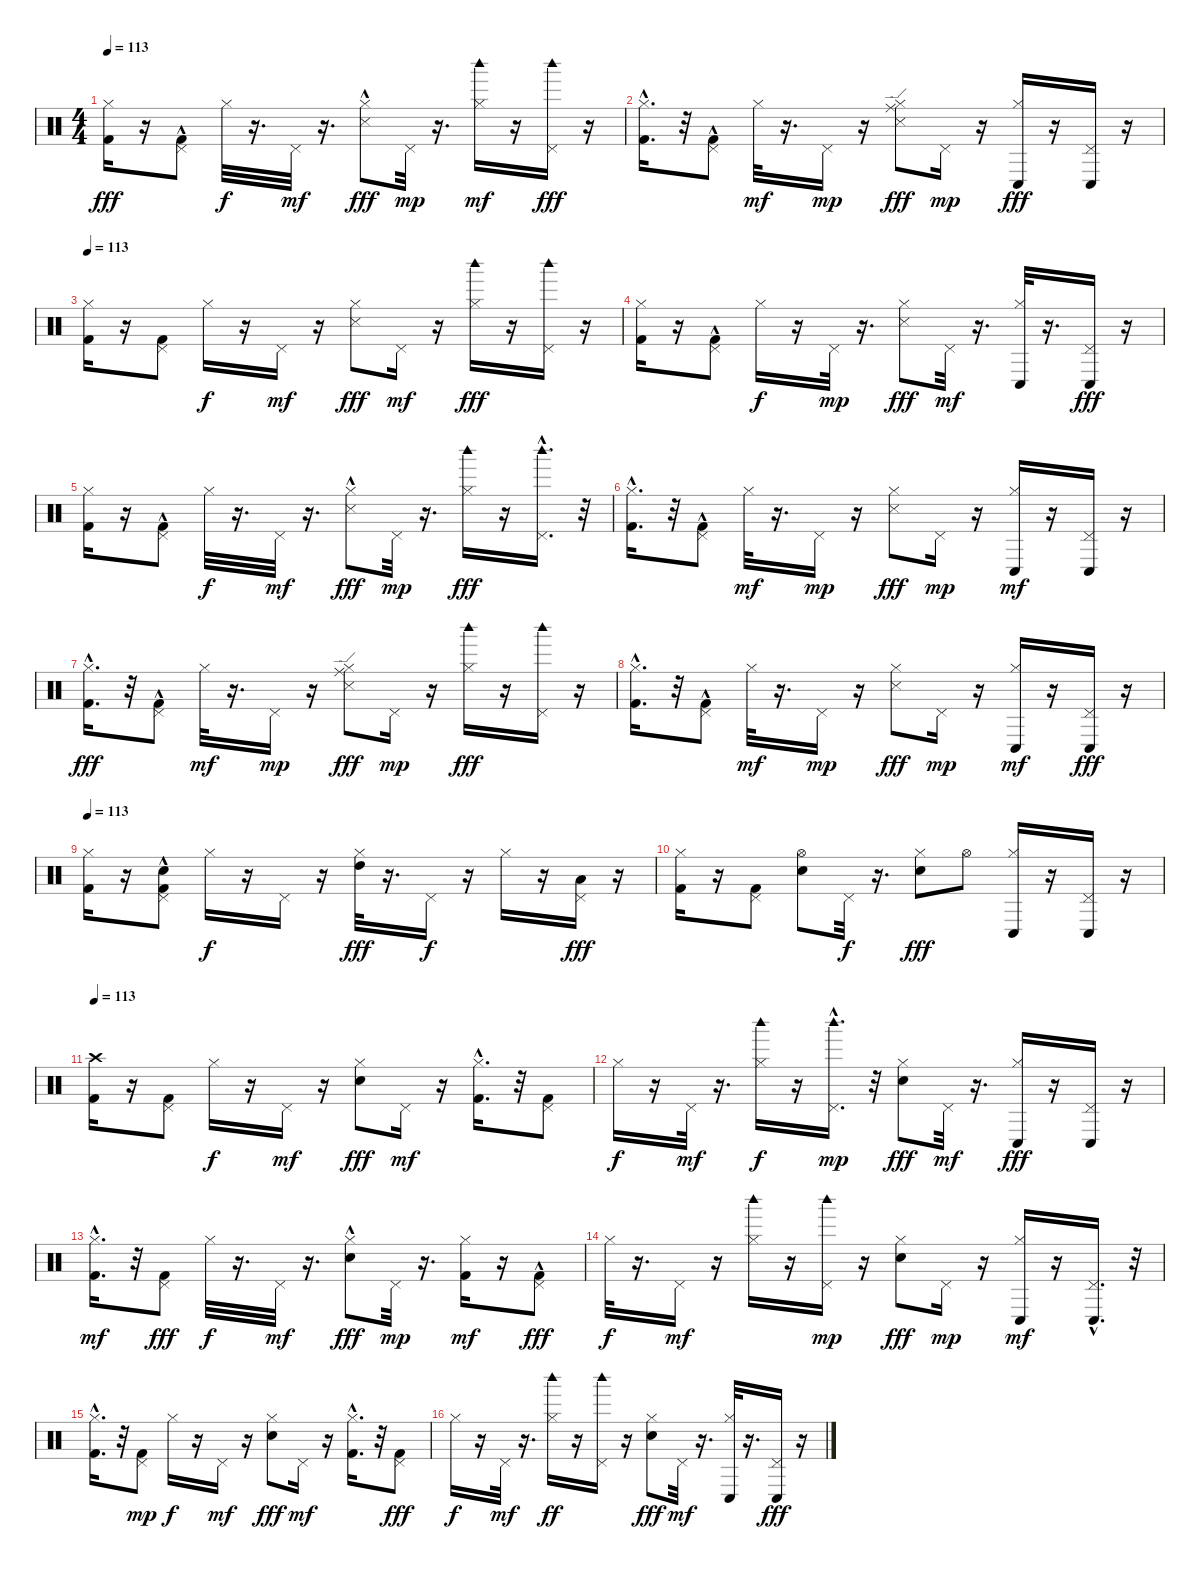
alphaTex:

\track "" {instrument percussion}
\staff {score}
\articulation defaults
\ts (4 4)
\tempo 113
\clef neutral
\ks c
("Hi-Hat (closed)" "Kick (hit) 2").16{dy fff} r.16 ("Pedal Hi-Hat (hit)" "Kick (hit) 2"{hac}).8 "Hi-Hat (closed)".32{dy f} r.16{d} "Pedal Hi-Hat (hit)".32{dy mf} r.16{d} ("Hi-Hat (closed)" "Snare (side stick) 3"{hac}).8{dy fff} "Pedal Hi-Hat (hit)".32{dy mp} r.16{d} ("Woodblock high (hit)" "Hi-Hat (closed)").16{dy mf} r.16 ("Pedal Hi-Hat (hit)" "Woodblock high (hit)").16{dy fff} r.16 |
("Hi-Hat (closed)" "Kick (hit) 2"{hac}).16{d} r.32 ("Pedal Hi-Hat (hit)" "Kick (hit) 2"{hac}).8 "Hi-Hat (closed)".32{dy mf} r.16{d} "Pedal Hi-Hat (hit)".16{dy mp} r.16 ("Ride (edge)" "Hi-Hat (closed)" "Snare (side stick) 3").8{dy fff} "Pedal Hi-Hat (hit)".16{dy mp} r.16 ("Hi-Hat (closed)" "Conga low (hit)").16{dy fff} r.16 ("Pedal Hi-Hat (hit)" "Conga low (hit)").16 r.16 |
\tempo 113
("Hi-Hat (closed)" "Kick (hit) 2").16 r.16 ("Pedal Hi-Hat (hit)" "Kick (hit) 2").8 "Hi-Hat (closed)".16{dy f} r.16 "Pedal Hi-Hat (hit)".16{dy mf} r.16 ("Hi-Hat (closed)" "Snare (side stick) 3").8{dy fff} "Pedal Hi-Hat (hit)".16{dy mf} r.16 ("Hi-Hat (closed)" "Woodblock high (hit)").16{dy fff} r.16 ("Pedal Hi-Hat (hit)" "Woodblock high (hit)").16 r.16 |
("Hi-Hat (closed)" "Kick (hit) 2").16 r.16 ("Pedal Hi-Hat (hit)" "Kick (hit) 2"{hac}).8 "Hi-Hat (closed)".16{dy f} r.16 "Pedal Hi-Hat (hit)".32{dy mp} r.16{d} ("Hi-Hat (closed)" "Snare (side stick) 3").8{dy fff} "Pedal Hi-Hat (hit)".32{dy mf} r.16{d} ("Conga low (hit)" "Hi-Hat (closed)").32 r.16{d} ("Pedal Hi-Hat (hit)" "Conga low (hit)").16{dy fff} r.16 |
("Hi-Hat (closed)" "Kick (hit) 2").16 r.16 ("Pedal Hi-Hat (hit)" "Kick (hit) 2"{hac}).8 "Hi-Hat (closed)".32{dy f} r.16{d} "Pedal Hi-Hat (hit)".32{dy mf} r.16{d} ("Hi-Hat (closed)" "Snare (side stick) 3"{hac}).8{dy fff} "Pedal Hi-Hat (hit)".32{dy mp} r.16{d} ("Hi-Hat (closed)" "Woodblock high (hit)").16{dy fff} r.16 ("Pedal Hi-Hat (hit)" "Woodblock high (hit)"{hac}).16{d} r.32 |
("Hi-Hat (closed)" "Kick (hit) 2"{hac}).16{d} r.32 ("Pedal Hi-Hat (hit)" "Kick (hit) 2"{hac}).8 "Hi-Hat (closed)".32{dy mf} r.16{d} "Pedal Hi-Hat (hit)".16{dy mp} r.16 ("Hi-Hat (closed)" "Snare (side stick) 3").8{dy fff} "Pedal Hi-Hat (hit)".16{dy mp} r.16 ("Conga low (hit)" "Hi-Hat (closed)").16{dy mf} r.16 ("Conga low (hit)" "Pedal Hi-Hat (hit)").16 r.16 |
("Hi-Hat (closed)" "Kick (hit) 2"{hac}).16{d dy fff} r.32 ("Pedal Hi-Hat (hit)" "Kick (hit) 2"{hac}).8 "Hi-Hat (closed)".32{dy mf} r.16{d} "Pedal Hi-Hat (hit)".16{dy mp} r.16 ("Ride (edge)" "Hi-Hat (closed)" "Snare (side stick) 3").8{dy fff} "Pedal Hi-Hat (hit)".16{dy mp} r.16 ("Hi-Hat (closed)" "Woodblock high (hit)").16{dy fff} r.16 ("Pedal Hi-Hat (hit)" "Woodblock high (hit)").16 r.16 |
("Hi-Hat (closed)" "Kick (hit) 2"{hac}).16{d} r.32 ("Pedal Hi-Hat (hit)" "Kick (hit) 2"{hac}).8 "Hi-Hat (closed)".32{dy mf} r.16{d} "Pedal Hi-Hat (hit)".16{dy mp} r.16 ("Hi-Hat (closed)" "Snare (side stick) 3").8{dy fff} "Pedal Hi-Hat (hit)".16{dy mp} r.16 ("Conga low (hit)" "Hi-Hat (closed)").16{dy mf} r.16 ("Pedal Hi-Hat (hit)" "Conga low (hit)").16{dy fff} r.16 |
\tempo 113
("Hi-Hat (closed)" "Kick (hit) 2").16 r.16 ("Electric Snare (hit)"{hac} "Pedal Hi-Hat (hit)" "Kick (hit) 2"{hac}).8 "Hi-Hat (closed)".16{dy f} r.16 "Pedal Hi-Hat (hit)".16 r.16 ("Hi-Hat (closed)" "High Tom (hit)").32{dy fff} r.16{d} "Pedal Hi-Hat (hit)".16{dy f} r.16 "Hi-Hat (closed)".16 r.16 ("Low Tom (hit)" "Pedal Hi-Hat (hit)").16{dy fff} r.16 |
("Hi-Hat (closed)" "Kick (hit) 2").16 r.16 ("Pedal Hi-Hat (hit)" "Kick (hit) 2").8 ("Hi-Hat (open)" "Electric Snare (hit)").8 "Pedal Hi-Hat (hit)".32{dy f} r.16{d} ("Electric Snare (hit)" "Hi-Hat (closed)").8{dy fff} "Hi-Hat (open)".8 ("Conga low (hit)" "Hi-Hat (closed)").16 r.16 ("Conga low (hit)" "Pedal Hi-Hat (hit)").16 r.16 |
\tempo 113
("Crash high (hit)" "Kick (hit) 2").16 r.16 ("Pedal Hi-Hat (hit)" "Kick (hit) 2").8 "Hi-Hat (closed)".16{dy f} r.16 "Pedal Hi-Hat (hit)".16{dy mf} r.16 ("Hi-Hat (closed)" "Snare (hit) 2").8{dy fff} "Pedal Hi-Hat (hit)".16{dy mf} r.16 ("Kick (hit) 2"{hac} "Hi-Hat (closed)").16{d} r.32 ("Kick (hit) 2" "Pedal Hi-Hat (hit)").8 |
"Hi-Hat (closed)".16{dy f} r.16 "Pedal Hi-Hat (hit)".32{dy mf} r.16{d} ("Hi-Hat (closed)" "Woodblock high (hit)").16{dy f} r.16 ("Pedal Hi-Hat (hit)" "Woodblock high (hit)"{hac}).16{d dy mp} r.32 ("Hi-Hat (closed)" "Snare (hit) 2").8{dy fff} "Pedal Hi-Hat (hit)".32{dy mf} r.16{d} ("Hi-Hat (closed)" "Conga low (hit)").16{dy fff} r.16 ("Pedal Hi-Hat (hit)" "Conga low (hit)").16 r.16 |
("Kick (hit) 2"{hac} "Hi-Hat (closed)").16{d dy mf} r.32 ("Pedal Hi-Hat (hit)" "Kick (hit) 2").8{dy fff} "Hi-Hat (closed)".32{dy f} r.16{d} "Pedal Hi-Hat (hit)".32{dy mf} r.16{d} ("Hi-Hat (closed)" "Snare (hit) 2"{hac}).8{dy fff} "Pedal Hi-Hat (hit)".32{dy mp} r.16{d} ("Kick (hit) 2" "Hi-Hat (closed)").16{dy mf} r.16 ("Pedal Hi-Hat (hit)" "Kick (hit) 2"{hac}).8{dy fff} |
"Hi-Hat (closed)".32{dy f} r.16{d} "Pedal Hi-Hat (hit)".16{dy mf} r.16 ("Woodblock high (hit)" "Hi-Hat (closed)").16 r.16 ("Woodblock high (hit)" "Pedal Hi-Hat (hit)").16{dy mp} r.16 ("Hi-Hat (closed)" "Snare (hit) 2").8{dy fff} "Pedal Hi-Hat (hit)".16{dy mp} r.16 ("Conga low (hit)" "Hi-Hat (closed)").16{dy mf} r.16 ("Conga low (hit)"{hac} "Pedal Hi-Hat (hit)").16{d} r.32 |
("Kick (hit) 2"{hac} "Hi-Hat (closed)").16{d} r.32 ("Kick (hit) 2" "Pedal Hi-Hat (hit)").8{dy mp} "Hi-Hat (closed)".16{dy f} r.16 "Pedal Hi-Hat (hit)".16{dy mf} r.16 ("Hi-Hat (closed)" "Snare (hit) 2").8{dy fff} "Pedal Hi-Hat (hit)".16{dy mf} r.16 ("Kick (hit) 2"{hac} "Hi-Hat (closed)").16{d} r.32 ("Pedal Hi-Hat (hit)" "Kick (hit) 2").8{dy fff} |
"Hi-Hat (closed)".16{dy f} r.16 "Pedal Hi-Hat (hit)".32{dy mf} r.16{d} ("Hi-Hat (closed)" "Woodblock high (hit)").16{dy ff} r.16 ("Pedal Hi-Hat (hit)" "Woodblock high (hit)").16 r.16 ("Hi-Hat (closed)" "Snare (hit) 2").8{dy fff} "Pedal Hi-Hat (hit)".32{dy mf} r.16{d} ("Conga low (hit)" "Hi-Hat (closed)").32 r.16{d} ("Pedal Hi-Hat (hit)" "Conga low (hit)").16{dy fff} r.16
